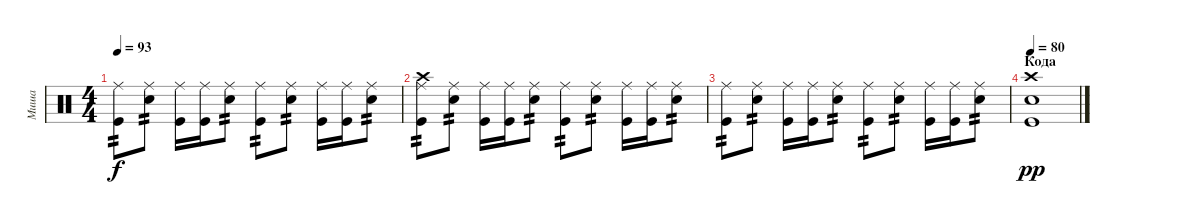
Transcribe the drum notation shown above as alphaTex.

\track ("Миша" "Миша") {instrument percussion}
\staff {score}
\articulation defaults
\ts (4 4)
\tempo 93
\clef neutral
\ks c
("Kick (hit)" "Ride (middle)").8{tp 2 dy f} ("Electric Snare (hit)" "Ride (middle)").8{tp 2} ("Kick (hit)" "Ride (middle)").16 ("Kick (hit)" "Ride (middle)").16 ("Electric Snare (hit)" "Ride (middle)").8{tp 2} ("Kick (hit)" "Ride (middle)").8{tp 2} ("Electric Snare (hit)" "Ride (middle)").8{tp 2} ("Kick (hit)" "Ride (middle)").16 ("Kick (hit)" "Ride (middle)").16 ("Electric Snare (hit)" "Ride (middle)").8{tp 2} |
("Kick (hit)" "Ride (middle)" "Crash high (hit)").8{tp 2} ("Electric Snare (hit)" "Ride (middle)").8{tp 2} ("Kick (hit)" "Ride (middle)").16 ("Kick (hit)" "Ride (middle)").16 ("Electric Snare (hit)" "Ride (middle)").8{tp 2} ("Kick (hit)" "Ride (middle)").8{tp 2} ("Electric Snare (hit)" "Ride (middle)").8{tp 2} ("Kick (hit)" "Ride (middle)").16 ("Kick (hit)" "Ride (middle)").16 ("Electric Snare (hit)" "Ride (middle)").8{tp 2} |
("Kick (hit)" "Ride (middle)").8{tp 2} ("Electric Snare (hit)" "Ride (middle)").8{tp 2} ("Kick (hit)" "Ride (middle)").16 ("Kick (hit)" "Ride (middle)").16 ("Electric Snare (hit)" "Ride (middle)").8{tp 2} ("Kick (hit)" "Ride (middle)").8{tp 2} ("Electric Snare (hit)" "Ride (middle)").8{tp 2} ("Kick (hit)" "Ride (middle)").16 ("Kick (hit)" "Ride (middle)").16 ("Electric Snare (hit)" "Ride (middle)").8{tp 2} |
\section ("" "Кода")
\tempo 80
("Kick (hit)" "Crash high (hit)" "Electric Snare (hit)").1{dy pp}
